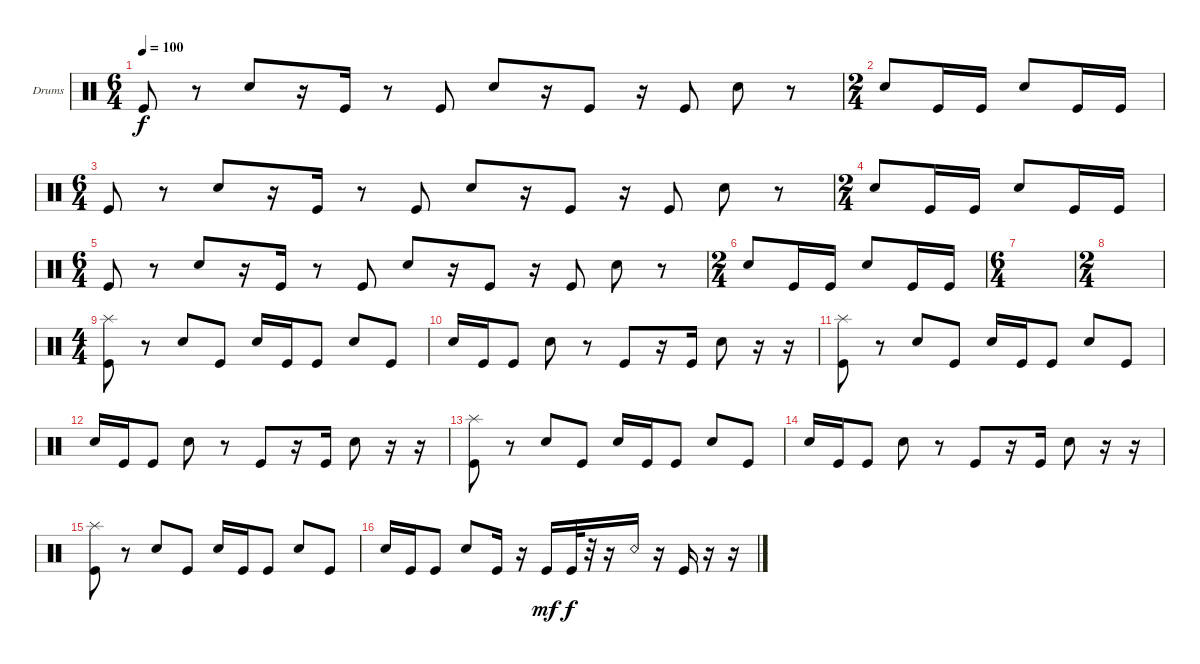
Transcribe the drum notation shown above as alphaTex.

\bracketExtendMode groupsimilarinstruments
\firstSystemTrackNameOrientation horizontal
\otherSystemsTrackNameOrientation horizontal
\track ("Drumkit" "Drums") {instrument percussion}
\staff {score}
\articulation defaults
\ts (6 4)
\tempo 100
\clef neutral
\scale
0.333333
\ks c "Kick (hit)".8{dy f}
r.8 "Snare (hit) 2".8 r.16 "Kick (hit)".16 r.8 "Kick (hit)".8 "Snare (hit) 2".8 r.16 "Kick (hit)".8 r.16 "Kick (hit)".8 "Snare (hit) 2".8 r.8 |
\ts (2 4)
\scale
0.333333 "Snare (hit) 2".8 "Kick (hit)".16 "Kick (hit)".16 "Snare (hit) 2".8 "Kick (hit)".16 "Kick (hit)".16 |
\ts (6 4)
\scale
0.333333 "Kick (hit)".8 r.8 "Snare (hit) 2".8 r.16 "Kick (hit)".16 r.8 "Kick (hit)".8 "Snare (hit) 2".8 r.16 "Kick (hit)".8 r.16 "Kick (hit)".8 "Snare (hit) 2".8 r.8 |
\ts (2 4)
\scale
0.333333 "Snare (hit) 2".8 "Kick (hit)".16 "Kick (hit)".16 "Snare (hit) 2".8 "Kick (hit)".16 "Kick (hit)".16 |
\ts (6 4)
\scale
0.333333 "Kick (hit)".8 r.8 "Snare (hit) 2".8 r.16 "Kick (hit)".16 r.8 "Kick (hit)".8 "Snare (hit) 2".8 r.16 "Kick (hit)".8 r.16 "Kick (hit)".8 "Snare (hit) 2".8 r.8 |
\ts (2 4)
\scale
0.333333 "Snare (hit) 2".8 "Kick (hit)".16 "Kick (hit)".16 "Snare (hit) 2".8 "Kick (hit)".16 "Kick (hit)".16 |
\ts (6 4)
\scale
0.333333 |
\ts (2 4)
\scale
0.333333 |
\ts (4 4)
\scale
0.474178 ("Kick (hit)" "Splash (hit)").8 r.8 "Snare (hit) 2".8 "Kick (hit)".8 "Snare (hit) 2".16 "Kick (hit)".16 "Kick (hit)".8 "Snare (hit) 2".8 "Kick (hit)".8 |
\scale
0.262911 "Snare (hit) 2".16 "Kick (hit)".16 "Kick (hit)".8 "Snare (hit) 2".8 r.8 "Kick (hit)".8 r.16 "Kick (hit)".16 "Snare (hit) 2".8 r.16 r.16 |
\scale
0.262911 ("Kick (hit)" "Splash (hit)").8 r.8 "Snare (hit) 2".8 "Kick (hit)".8 "Snare (hit) 2".16 "Kick (hit)".16 "Kick (hit)".8 "Snare (hit) 2".8 "Kick (hit)".8 |
\scale
0.333333 "Snare (hit) 2".16 "Kick (hit)".16 "Kick (hit)".8 "Snare (hit) 2".8 r.8 "Kick (hit)".8 r.16 "Kick (hit)".16 "Snare (hit) 2".8 r.16 r.16 |
\scale
0.333333 ("Kick (hit)" "Splash (hit)").8 r.8 "Snare (hit) 2".8 "Kick (hit)".8 "Snare (hit) 2".16 "Kick (hit)".16 "Kick (hit)".8 "Snare (hit) 2".8 "Kick (hit)".8 |
\scale
0.333333 "Snare (hit) 2".16 "Kick (hit)".16 "Kick (hit)".8 "Snare (hit) 2".8 r.8 "Kick (hit)".8 r.16 "Kick (hit)".16 "Snare (hit) 2".8 r.16 r.16 |
\scale
0.333333 ("Kick (hit)" "Splash (hit)").8 r.8 "Snare (hit) 2".8 "Kick (hit)".8 "Snare (hit) 2".16 "Kick (hit)".16 "Kick (hit)".8 "Snare (hit) 2".8 "Kick (hit)".8 |
\scale
0.333333 "Snare (hit) 2".16 "Kick (hit)".16 "Kick (hit)".8 "Snare (hit) 2".8 "Kick (hit)".16 r.16 "Kick (hit)".16{dy mf} "Kick (hit)".32{dy f} r.32 r.16 "Snare (rim shot)".16 r.16 "Kick (hit)".16 r.16 r.16
